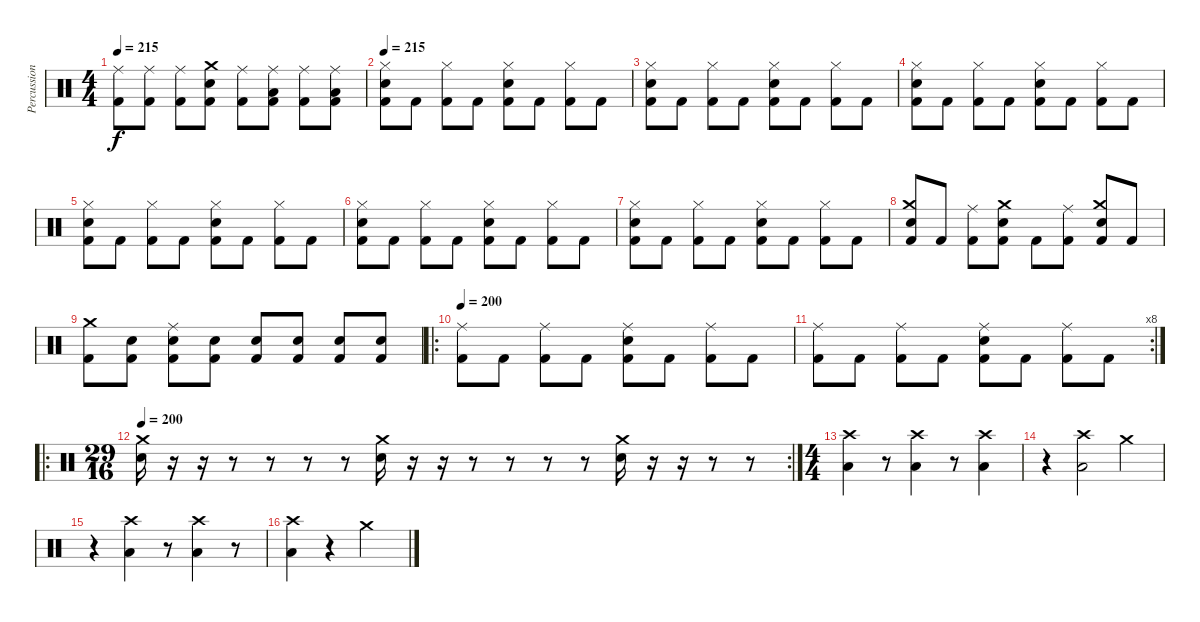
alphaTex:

\track ("Percussion" "Percussion") {instrument percussion}
\staff {score}
\articulation defaults
\ts (4 4)
\tempo 215
\clef neutral
\ks c
("Ride (middle)" "Kick (hit) 2").8{dy f} ("Ride (middle)" "Kick (hit) 2").8 ("Ride (middle)" "Kick (hit) 2").8 ("Crash medium (hit)" "Snare (hit) 2" "Kick (hit) 2").8 ("Ride (middle)" "Kick (hit) 2").8 ("Ride (middle)" "Low Tom (hit)" "Kick (hit) 2").8 ("Ride (middle)" "Kick (hit) 2").8 ("Ride (middle)" "Low Tom (hit)" "Kick (hit) 2").8 |
\tempo 215
("Hi-Hat (closed)" "Snare (hit) 2" "Kick (hit) 2").8 "Kick (hit) 2".8 ("Hi-Hat (closed)" "Kick (hit) 2").8 "Kick (hit) 2".8 ("Hi-Hat (closed)" "Snare (hit) 2" "Kick (hit) 2").8 "Kick (hit) 2".8 ("Hi-Hat (closed)" "Kick (hit) 2").8 "Kick (hit) 2".8 |
("Hi-Hat (closed)" "Snare (hit) 2" "Kick (hit) 2").8 "Kick (hit) 2".8 ("Hi-Hat (closed)" "Kick (hit) 2").8 "Kick (hit) 2".8 ("Hi-Hat (closed)" "Snare (hit) 2" "Kick (hit) 2").8 "Kick (hit) 2".8 ("Hi-Hat (closed)" "Kick (hit) 2").8 "Kick (hit) 2".8 |
("Hi-Hat (closed)" "Snare (hit) 2" "Kick (hit) 2").8 "Kick (hit) 2".8 ("Hi-Hat (closed)" "Kick (hit) 2").8 "Kick (hit) 2".8 ("Hi-Hat (closed)" "Snare (hit) 2" "Kick (hit) 2").8 "Kick (hit) 2".8 ("Hi-Hat (closed)" "Kick (hit) 2").8 "Kick (hit) 2".8 |
("Hi-Hat (closed)" "Snare (hit) 2" "Kick (hit) 2").8 "Kick (hit) 2".8 ("Hi-Hat (closed)" "Kick (hit) 2").8 "Kick (hit) 2".8 ("Hi-Hat (closed)" "Snare (hit) 2" "Kick (hit) 2").8 "Kick (hit) 2".8 ("Hi-Hat (closed)" "Kick (hit) 2").8 "Kick (hit) 2".8 |
("Hi-Hat (closed)" "Snare (hit) 2" "Kick (hit) 2").8 "Kick (hit) 2".8 ("Hi-Hat (closed)" "Kick (hit) 2").8 "Kick (hit) 2".8 ("Hi-Hat (closed)" "Snare (hit) 2" "Kick (hit) 2").8 "Kick (hit) 2".8 ("Hi-Hat (closed)" "Kick (hit) 2").8 "Kick (hit) 2".8 |
("Hi-Hat (closed)" "Snare (hit) 2" "Kick (hit) 2").8 "Kick (hit) 2".8 ("Hi-Hat (closed)" "Kick (hit) 2").8 "Kick (hit) 2".8 ("Hi-Hat (closed)" "Snare (hit) 2" "Kick (hit) 2").8 "Kick (hit) 2".8 ("Hi-Hat (closed)" "Kick (hit) 2").8 "Kick (hit) 2".8 |
("Crash medium (hit)" "Electric Snare (hit)" "Kick (hit) 2").8 "Kick (hit) 2".8 ("Ride (middle)" "Kick (hit) 2").8 ("Crash medium (hit)" "Electric Snare (hit)" "Kick (hit) 2").8 "Kick (hit) 2".8 ("Ride (middle)" "Kick (hit) 2").8 ("Crash medium (hit)" "Electric Snare (hit)" "Kick (hit) 2").8 "Kick (hit) 2".8 |
("Crash medium (hit)" "Kick (hit) 2").8 ("Snare (hit) 2" "Kick (hit) 2").8 ("Ride (middle)" "Snare (hit) 2" "Kick (hit) 2").8 ("Snare (hit) 2" "Kick (hit) 2").8 ("Snare (hit) 2" "Kick (hit) 2").8 ("Snare (hit) 2" "Kick (hit) 2").8 ("Snare (hit) 2" "Kick (hit) 2").8 ("Snare (hit) 2" "Kick (hit) 2").8 |
\ro
\tempo 200
("Ride (middle)" "Kick (hit) 2").8 "Kick (hit) 2".8 ("Ride (middle)" "Kick (hit) 2").8 "Kick (hit) 2".8 ("Ride (middle)" "Snare (hit) 2" "Kick (hit) 2").8 "Kick (hit) 2".8 ("Ride (middle)" "Kick (hit) 2").8 "Kick (hit) 2".8 |
\rc 8
("Ride (middle)" "Kick (hit) 2").8 "Kick (hit) 2".8 ("Ride (middle)" "Kick (hit) 2").8 "Kick (hit) 2".8 ("Ride (middle)" "Snare (hit) 2" "Kick (hit) 2").8 "Kick (hit) 2".8 ("Ride (middle)" "Kick (hit) 2").8 "Kick (hit) 2".8 |
\ro
\rc 2
\ts (29 16)
\tempo 200
("Crash medium (hit)" "Electric Snare (hit)").16 r.16 r.16 r.8 r.8 r.8 r.8 ("Crash medium (hit)" "Electric Snare (hit)").16 r.16 r.16 r.8 r.8 r.8 r.8 ("Crash medium (hit)" "Electric Snare (hit)").16 r.16 r.16 r.8 r.8 |
\ts (4 4)
("Crash high (hit)" "Low Tom (hit)").4 r.8 ("Crash high (hit)" "Low Tom (hit)").4 r.8 ("Crash high (hit)" "Low Tom (hit)").4 |
r.4 ("Crash high (hit)" "Low Tom (hit)").2 "Crash medium (hit)".4 |
r.4 ("Crash high (hit)" "Low Tom (hit)").4 r.8 ("Crash high (hit)" "Low Tom (hit)").4 r.8 |
("Crash high (hit)" "Low Tom (hit)").4 r.4 "Crash medium (hit)".2
